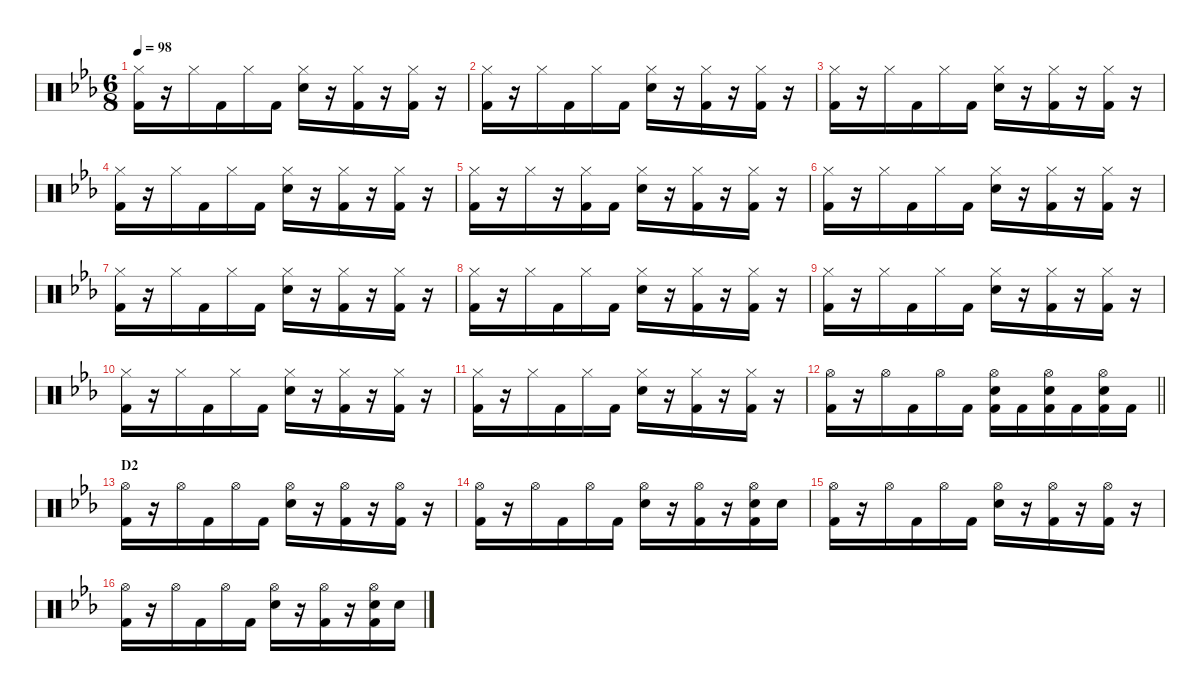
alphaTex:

\defaultSystemsLayout 4
\hideDynamics
\bracketExtendMode nobrackets
\singleTrackTrackNamePolicy hidden
\multiTrackTrackNamePolicy hidden
\firstSystemTrackNameMode fullname
\firstSystemTrackNameOrientation horizontal
\otherSystemsTrackNameOrientation horizontal
\track ("Gene Hogland" "drm.") {instrument percussion}
\staff {score}
\articulation defaults
\ts (6 8)
\tempo 98
\clef neutral
\ks eb
("Hi-Hat (closed)"{acc forcenatural} "Kick (hit) 2"{acc forcenatural}).16{dy f beam Down} r.16{beam Down} "Hi-Hat (closed)"{acc forcenatural}.16{beam Down} "Kick (hit) 2"{acc forcenatural}.16{beam Down} "Hi-Hat (closed)"{acc forcenatural}.16{beam Down} "Kick (hit) 2"{acc forcenatural}.16{beam Down} ("Hi-Hat (closed)"{acc forcenatural} "Snare (hit) 2"{acc forcenatural}).16{beam Down} r.16{beam Down} ("Hi-Hat (closed)"{acc forcenatural} "Kick (hit) 2"{acc forcenatural}).16{beam Down} r.16{beam Down} ("Hi-Hat (closed)"{acc forcenatural} "Kick (hit) 2"{acc forcenatural}).16{beam Down} r.16{beam Down} |
("Hi-Hat (closed)"{acc forcenatural} "Kick (hit) 2"{acc forcenatural}).16{beam Down} r.16{beam Down} "Hi-Hat (closed)"{acc forcenatural}.16{beam Down} "Kick (hit) 2"{acc forcenatural}.16{beam Down} "Hi-Hat (closed)"{acc forcenatural}.16{beam Down} "Kick (hit) 2"{acc forcenatural}.16{beam Down} ("Hi-Hat (closed)"{acc forcenatural} "Snare (hit) 2"{acc forcenatural}).16{beam Down} r.16{beam Down} ("Hi-Hat (closed)"{acc forcenatural} "Kick (hit) 2"{acc forcenatural}).16{beam Down} r.16{beam Down} ("Hi-Hat (closed)"{acc forcenatural} "Kick (hit) 2"{acc forcenatural}).16{beam Down} r.16{beam Down} |
("Hi-Hat (closed)"{acc forcenatural} "Kick (hit) 2"{acc forcenatural}).16{beam Down} r.16{beam Down} "Hi-Hat (closed)"{acc forcenatural}.16{beam Down} "Kick (hit) 2"{acc forcenatural}.16{beam Down} "Hi-Hat (closed)"{acc forcenatural}.16{beam Down} "Kick (hit) 2"{acc forcenatural}.16{beam Down} ("Hi-Hat (closed)"{acc forcenatural} "Snare (hit) 2"{acc forcenatural}).16{beam Down} r.16{beam Down} ("Hi-Hat (closed)"{acc forcenatural} "Kick (hit) 2"{acc forcenatural}).16{beam Down} r.16{beam Down} ("Hi-Hat (closed)"{acc forcenatural} "Kick (hit) 2"{acc forcenatural}).16{beam Down} r.16{beam Down} |
("Hi-Hat (closed)"{acc forcenatural} "Kick (hit) 2"{acc forcenatural}).16{beam Down} r.16{beam Down} "Hi-Hat (closed)"{acc forcenatural}.16{beam Down} "Kick (hit) 2"{acc forcenatural}.16{beam Down} "Hi-Hat (closed)"{acc forcenatural}.16{beam Down} "Kick (hit) 2"{acc forcenatural}.16{beam Down} ("Hi-Hat (closed)"{acc forcenatural} "Snare (hit) 2"{acc forcenatural}).16{beam Down} r.16{beam Down} ("Hi-Hat (closed)"{acc forcenatural} "Kick (hit) 2"{acc forcenatural}).16{beam Down} r.16{beam Down} ("Hi-Hat (closed)"{acc forcenatural} "Kick (hit) 2"{acc forcenatural}).16{beam Down} r.16{beam Down} |
("Hi-Hat (closed)"{acc forcenatural} "Kick (hit) 2"{acc forcenatural}).16{beam Down} r.16{beam Down} "Hi-Hat (closed)"{acc forcenatural}.16{beam Down} r.16{beam Down} ("Hi-Hat (closed)"{acc forcenatural} "Kick (hit) 2"{acc forcenatural}).16{beam Down} "Kick (hit) 2"{acc forcenatural}.16{beam Down} ("Hi-Hat (closed)"{acc forcenatural} "Snare (hit) 2"{acc forcenatural}).16{beam Down} r.16{beam Down} ("Hi-Hat (closed)"{acc forcenatural} "Kick (hit) 2"{acc forcenatural}).16{beam Down} r.16{beam Down} ("Hi-Hat (closed)"{acc forcenatural} "Kick (hit) 2"{acc forcenatural}).16{beam Down} r.16{beam Down} |
("Hi-Hat (closed)"{acc forcenatural} "Kick (hit) 2"{acc forcenatural}).16{beam Down} r.16{beam Down} "Hi-Hat (closed)"{acc forcenatural}.16{beam Down} "Kick (hit) 2"{acc forcenatural}.16{beam Down} "Hi-Hat (closed)"{acc forcenatural}.16{beam Down} "Kick (hit) 2"{acc forcenatural}.16{beam Down} ("Hi-Hat (closed)"{acc forcenatural} "Snare (hit) 2"{acc forcenatural}).16{beam Down} r.16{beam Down} ("Hi-Hat (closed)"{acc forcenatural} "Kick (hit) 2"{acc forcenatural}).16{beam Down} r.16{beam Down} ("Hi-Hat (closed)"{acc forcenatural} "Kick (hit) 2"{acc forcenatural}).16{beam Down} r.16{beam Down} |
("Hi-Hat (closed)"{acc forcenatural} "Kick (hit) 2"{acc forcenatural}).16{beam Down} r.16{beam Down} "Hi-Hat (closed)"{acc forcenatural}.16{beam Down} "Kick (hit) 2"{acc forcenatural}.16{beam Down} "Hi-Hat (closed)"{acc forcenatural}.16{beam Down} "Kick (hit) 2"{acc forcenatural}.16{beam Down} ("Hi-Hat (closed)"{acc forcenatural} "Snare (hit) 2"{acc forcenatural}).16{beam Down} r.16{beam Down} ("Hi-Hat (closed)"{acc forcenatural} "Kick (hit) 2"{acc forcenatural}).16{beam Down} r.16{beam Down} ("Hi-Hat (closed)"{acc forcenatural} "Kick (hit) 2"{acc forcenatural}).16{beam Down} r.16{beam Down} |
("Hi-Hat (closed)"{acc forcenatural} "Kick (hit) 2"{acc forcenatural}).16{beam Down} r.16{beam Down} "Hi-Hat (closed)"{acc forcenatural}.16{beam Down} "Kick (hit) 2"{acc forcenatural}.16{beam Down} "Hi-Hat (closed)"{acc forcenatural}.16{beam Down} "Kick (hit) 2"{acc forcenatural}.16{beam Down} ("Hi-Hat (closed)"{acc forcenatural} "Snare (hit) 2"{acc forcenatural}).16{beam Down} r.16{beam Down} ("Hi-Hat (closed)"{acc forcenatural} "Kick (hit) 2"{acc forcenatural}).16{beam Down} r.16{beam Down} ("Hi-Hat (closed)"{acc forcenatural} "Kick (hit) 2"{acc forcenatural}).16{beam Down} r.16{beam Down} |
("Hi-Hat (closed)"{acc forcenatural} "Kick (hit) 2"{acc forcenatural}).16{beam Down} r.16{beam Down} "Hi-Hat (closed)"{acc forcenatural}.16{beam Down} "Kick (hit) 2"{acc forcenatural}.16{beam Down} "Hi-Hat (closed)"{acc forcenatural}.16{beam Down} "Kick (hit) 2"{acc forcenatural}.16{beam Down} ("Hi-Hat (closed)"{acc forcenatural} "Snare (hit) 2"{acc forcenatural}).16{beam Down} r.16{beam Down} ("Hi-Hat (closed)"{acc forcenatural} "Kick (hit) 2"{acc forcenatural}).16{beam Down} r.16{beam Down} ("Hi-Hat (closed)"{acc forcenatural} "Kick (hit) 2"{acc forcenatural}).16{beam Down} r.16{beam Down} |
("Hi-Hat (closed)"{acc forcenatural} "Kick (hit) 2"{acc forcenatural}).16{beam Down} r.16{beam Down} "Hi-Hat (closed)"{acc forcenatural}.16{beam Down} "Kick (hit) 2"{acc forcenatural}.16{beam Down} "Hi-Hat (closed)"{acc forcenatural}.16{beam Down} "Kick (hit) 2"{acc forcenatural}.16{beam Down} ("Hi-Hat (closed)"{acc forcenatural} "Snare (hit) 2"{acc forcenatural}).16{beam Down} r.16{beam Down} ("Hi-Hat (closed)"{acc forcenatural} "Kick (hit) 2"{acc forcenatural}).16{beam Down} r.16{beam Down} ("Hi-Hat (closed)"{acc forcenatural} "Kick (hit) 2"{acc forcenatural}).16{beam Down} r.16{beam Down} |
("Hi-Hat (closed)"{acc forcenatural} "Kick (hit) 2"{acc forcenatural}).16{beam Down} r.16{beam Down} "Hi-Hat (closed)"{acc forcenatural}.16{beam Down} "Kick (hit) 2"{acc forcenatural}.16{beam Down} "Hi-Hat (closed)"{acc forcenatural}.16{beam Down} "Kick (hit) 2"{acc forcenatural}.16{beam Down} ("Hi-Hat (closed)"{acc forcenatural} "Snare (hit) 2"{acc forcenatural}).16{beam Down} r.16{beam Down} ("Hi-Hat (closed)"{acc forcenatural} "Kick (hit) 2"{acc forcenatural}).16{beam Down} r.16{beam Down} ("Hi-Hat (closed)"{acc forcenatural} "Kick (hit) 2"{acc forcenatural}).16{beam Down} r.16{beam Down} |
\barLineRight lightlight
("Hi-Hat (open)"{acc forcenatural} "Kick (hit) 2"{acc forcenatural}).16{beam Down} r.16{beam Down} "Hi-Hat (open)"{acc forcenatural}.16{beam Down} "Kick (hit) 2"{acc forcenatural}.16{beam Down} "Hi-Hat (open)"{acc forcenatural}.16{beam Down} "Kick (hit) 2"{acc forcenatural}.16{beam Down} ("Hi-Hat (open)"{acc forcenatural} "Snare (hit) 2"{acc forcenatural} "Kick (hit) 2"{acc forcenatural}).16{beam Down} "Kick (hit) 2"{acc forcenatural}.16{beam Down} ("Hi-Hat (open)"{acc forcenatural} "Snare (hit) 2"{acc forcenatural} "Kick (hit) 2"{acc forcenatural}).16{beam Down} "Kick (hit) 2"{acc forcenatural}.16{beam Down} ("Hi-Hat (open)"{acc forcenatural} "Snare (hit) 2"{acc forcenatural} "Kick (hit) 2"{acc forcenatural}).16{beam Down} "Kick (hit) 2"{acc forcenatural}.16{beam Down} |
\section ("" "D2")
("Hi-Hat (open)"{acc forcenatural} "Kick (hit) 2"{acc forcenatural}).16{beam Down} r.16{beam Down} "Hi-Hat (open)"{acc forcenatural}.16{beam Down} "Kick (hit) 2"{acc forcenatural}.16{beam Down} "Hi-Hat (open)"{acc forcenatural}.16{beam Down} "Kick (hit) 2"{acc forcenatural}.16{beam Down} ("Hi-Hat (open)"{acc forcenatural} "Snare (hit) 2"{acc forcenatural}).16{beam Down} r.16{beam Down} ("Hi-Hat (open)"{acc forcenatural} "Kick (hit) 2"{acc forcenatural}).16{beam Down} r.16{beam Down} ("Hi-Hat (open)"{acc forcenatural} "Kick (hit) 2"{acc forcenatural}).16{beam Down} r.16{beam Down} |
("Hi-Hat (open)"{acc forcenatural} "Kick (hit) 2"{acc forcenatural}).16{beam Down} r.16{beam Down} "Hi-Hat (open)"{acc forcenatural}.16{beam Down} "Kick (hit) 2"{acc forcenatural}.16{beam Down} "Hi-Hat (open)"{acc forcenatural}.16{beam Down} "Kick (hit) 2"{acc forcenatural}.16{beam Down} ("Hi-Hat (open)"{acc forcenatural} "Snare (hit) 2"{acc forcenatural}).16{beam Down} r.16{beam Down} ("Hi-Hat (open)"{acc forcenatural} "Kick (hit) 2"{acc forcenatural}).16{beam Down} r.16{beam Down} ("Hi-Hat (open)"{acc forcenatural} "Snare (hit) 2"{acc forcenatural} "Kick (hit) 2"{acc forcenatural}).16{beam Down} "Snare (hit) 2"{acc forcenatural}.16{beam Down} |
("Hi-Hat (open)"{acc forcenatural} "Kick (hit) 2"{acc forcenatural}).16{beam Down} r.16{beam Down} "Hi-Hat (open)"{acc forcenatural}.16{beam Down} "Kick (hit) 2"{acc forcenatural}.16{beam Down} "Hi-Hat (open)"{acc forcenatural}.16{beam Down} "Kick (hit) 2"{acc forcenatural}.16{beam Down} ("Hi-Hat (open)"{acc forcenatural} "Snare (hit) 2"{acc forcenatural}).16{beam Down} r.16{beam Down} ("Hi-Hat (open)"{acc forcenatural} "Kick (hit) 2"{acc forcenatural}).16{beam Down} r.16{beam Down} ("Hi-Hat (open)"{acc forcenatural} "Kick (hit) 2"{acc forcenatural}).16{beam Down} r.16{beam Down} |
("Hi-Hat (open)"{acc forcenatural} "Kick (hit) 2"{acc forcenatural}).16{beam Down} r.16{beam Down} "Hi-Hat (open)"{acc forcenatural}.16{beam Down} "Kick (hit) 2"{acc forcenatural}.16{beam Down} "Hi-Hat (open)"{acc forcenatural}.16{beam Down} "Kick (hit) 2"{acc forcenatural}.16{beam Down} ("Hi-Hat (open)"{acc forcenatural} "Snare (hit) 2"{acc forcenatural}).16{beam Down} r.16{beam Down} ("Hi-Hat (open)"{acc forcenatural} "Kick (hit) 2"{acc forcenatural}).16{beam Down} r.16{beam Down} ("Hi-Hat (open)"{acc forcenatural} "Snare (hit) 2"{acc forcenatural} "Kick (hit) 2"{acc forcenatural}).16{beam Down} "Snare (hit) 2"{acc forcenatural}.16{beam Down}
